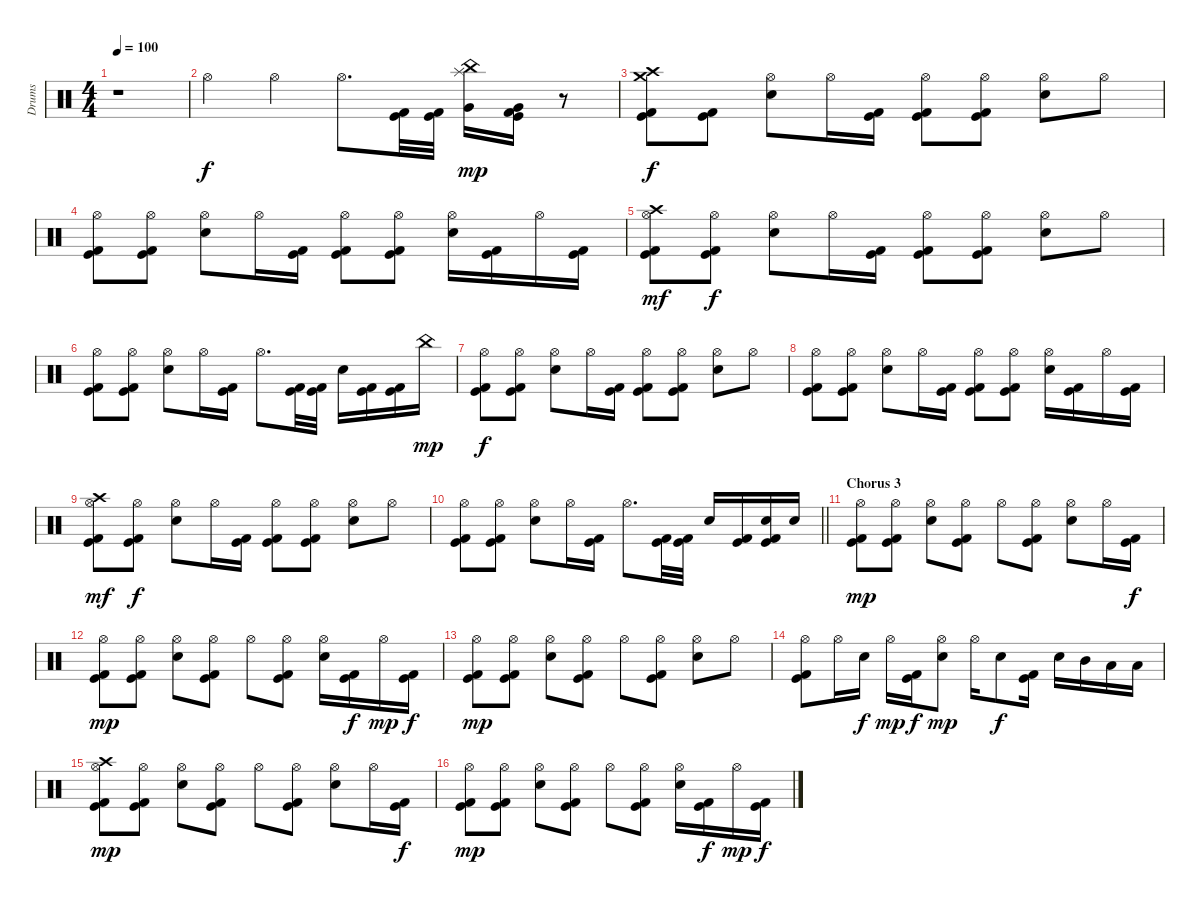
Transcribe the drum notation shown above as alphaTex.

\track ("Drums" "Drums") {instrument percussion}
\staff {score}
\articulation defaults
\ts (4 4)
\tempo 100
\clef neutral
\ks c
r.1{dy f} |
"Hi-Hat (open)".4 "Hi-Hat (open)".4 "Hi-Hat (open)".8{d} ("Kick (hit)" "Kick (hit) 2").32 ("Kick (hit)" "Kick (hit) 2").32 ("Splash (hit)" "China (hit)" "Very Low Tom (hit)").16{dy mp} ("Very Low Tom (hit)" "Kick (hit)" "Kick (hit) 2").16 r.8 |
("Crash medium (hit)" "Crash high (hit)" "Kick (hit)" "Kick (hit) 2").8{dy f} ("Kick (hit)" "Kick (hit) 2").8 ("Hi-Hat (open)" "Snare (hit) 2").8 "Hi-Hat (open)".16 ("Kick (hit)" "Kick (hit) 2").16 ("Hi-Hat (open)" "Kick (hit)" "Kick (hit) 2").8 ("Hi-Hat (open)" "Kick (hit)" "Kick (hit) 2").8 ("Hi-Hat (open)" "Snare (hit) 2").8 "Hi-Hat (open)".8 |
("Hi-Hat (open)" "Kick (hit)" "Kick (hit) 2").8 ("Hi-Hat (open)" "Kick (hit)" "Kick (hit) 2").8 ("Hi-Hat (open)" "Snare (hit) 2").8 "Hi-Hat (open)".16 ("Kick (hit)" "Kick (hit) 2").16 ("Hi-Hat (open)" "Kick (hit)" "Kick (hit) 2").8 ("Hi-Hat (open)" "Kick (hit)" "Kick (hit) 2").8 ("Hi-Hat (open)" "Snare (hit) 2").16 ("Kick (hit)" "Kick (hit) 2").16 "Hi-Hat (open)".16 ("Kick (hit)" "Kick (hit) 2").16 |
("Crash high (hit)" "Hi-Hat (open)" "Kick (hit)" "Kick (hit) 2").8{dy mf} ("Hi-Hat (open)" "Kick (hit)" "Kick (hit) 2").8{dy f} ("Hi-Hat (open)" "Snare (hit) 2").8 "Hi-Hat (open)".16 ("Kick (hit)" "Kick (hit) 2").16 ("Hi-Hat (open)" "Kick (hit)" "Kick (hit) 2").8 ("Hi-Hat (open)" "Kick (hit)" "Kick (hit) 2").8 ("Hi-Hat (open)" "Snare (hit) 2").8 "Hi-Hat (open)".8 |
("Hi-Hat (open)" "Kick (hit)" "Kick (hit) 2").8 ("Hi-Hat (open)" "Kick (hit)" "Kick (hit) 2").8 ("Hi-Hat (open)" "Snare (hit) 2").8 "Hi-Hat (open)".16 ("Kick (hit)" "Kick (hit) 2").16 "Hi-Hat (open)".8{d} ("Kick (hit)" "Kick (hit) 2").32 ("Kick (hit)" "Kick (hit) 2").32 "Snare (hit) 2".16 ("Kick (hit)" "Kick (hit) 2").16 ("Kick (hit)" "Kick (hit) 2").16 "China (hit)".16{dy mp} |
("Hi-Hat (open)" "Kick (hit)" "Kick (hit) 2").8{dy f} ("Hi-Hat (open)" "Kick (hit)" "Kick (hit) 2").8 ("Hi-Hat (open)" "Snare (hit) 2").8 "Hi-Hat (open)".16 ("Kick (hit)" "Kick (hit) 2").16 ("Hi-Hat (open)" "Kick (hit)" "Kick (hit) 2").8 ("Hi-Hat (open)" "Kick (hit)" "Kick (hit) 2").8 ("Hi-Hat (open)" "Snare (hit) 2").8 "Hi-Hat (open)".8 |
("Hi-Hat (open)" "Kick (hit)" "Kick (hit) 2").8 ("Hi-Hat (open)" "Kick (hit)" "Kick (hit) 2").8 ("Hi-Hat (open)" "Snare (hit) 2").8 "Hi-Hat (open)".16 ("Kick (hit)" "Kick (hit) 2").16 ("Hi-Hat (open)" "Kick (hit)" "Kick (hit) 2").8 ("Hi-Hat (open)" "Kick (hit)" "Kick (hit) 2").8 ("Hi-Hat (open)" "Snare (hit) 2").16 ("Kick (hit)" "Kick (hit) 2").16 "Hi-Hat (open)".16 ("Kick (hit)" "Kick (hit) 2").16 |
("Crash high (hit)" "Hi-Hat (open)" "Kick (hit)" "Kick (hit) 2").8{dy mf} ("Hi-Hat (open)" "Kick (hit)" "Kick (hit) 2").8{dy f} ("Hi-Hat (open)" "Snare (hit) 2").8 "Hi-Hat (open)".16 ("Kick (hit)" "Kick (hit) 2").16 ("Hi-Hat (open)" "Kick (hit)" "Kick (hit) 2").8 ("Hi-Hat (open)" "Kick (hit)" "Kick (hit) 2").8 ("Hi-Hat (open)" "Snare (hit) 2").8 "Hi-Hat (open)".8 |
\barLineRight lightlight
("Hi-Hat (open)" "Kick (hit)" "Kick (hit) 2").8 ("Hi-Hat (open)" "Kick (hit)" "Kick (hit) 2").8 ("Hi-Hat (open)" "Snare (hit) 2").8 "Hi-Hat (open)".16 ("Kick (hit)" "Kick (hit) 2").16 "Hi-Hat (open)".8{d} ("Kick (hit)" "Kick (hit) 2").32 ("Kick (hit)" "Kick (hit) 2").32 "Snare (hit) 2".16 ("Kick (hit)" "Kick (hit) 2").16 ("Snare (hit) 2" "Kick (hit)" "Kick (hit) 2").16 "Snare (hit) 2".16 |
\section ("" "Chorus 3")
("Hi-Hat (open)" "Kick (hit)" "Kick (hit) 2").8{dy mp} ("Hi-Hat (open)" "Kick (hit)" "Kick (hit) 2").8 ("Hi-Hat (open)" "Snare (hit) 2").8 ("Hi-Hat (open)" "Kick (hit)" "Kick (hit) 2").8 "Hi-Hat (open)".8 ("Hi-Hat (open)" "Kick (hit)" "Kick (hit) 2").8 ("Hi-Hat (open)" "Snare (hit) 2").8 "Hi-Hat (open)".16 ("Kick (hit)" "Kick (hit) 2").16{dy f} |
("Hi-Hat (open)" "Kick (hit)" "Kick (hit) 2").8{dy mp} ("Hi-Hat (open)" "Kick (hit)" "Kick (hit) 2").8 ("Hi-Hat (open)" "Snare (hit) 2").8 ("Hi-Hat (open)" "Kick (hit)" "Kick (hit) 2").8 "Hi-Hat (open)".8 ("Hi-Hat (open)" "Kick (hit)" "Kick (hit) 2").8 ("Hi-Hat (open)" "Snare (hit) 2").16 ("Kick (hit)" "Kick (hit) 2").16{dy f} "Hi-Hat (open)".16{dy mp} ("Kick (hit)" "Kick (hit) 2").16{dy f} |
("Hi-Hat (open)" "Kick (hit)" "Kick (hit) 2").8{dy mp} ("Hi-Hat (open)" "Kick (hit)" "Kick (hit) 2").8 ("Hi-Hat (open)" "Snare (hit) 2").8 ("Hi-Hat (open)" "Kick (hit)" "Kick (hit) 2").8 "Hi-Hat (open)".8 ("Hi-Hat (open)" "Kick (hit)" "Kick (hit) 2").8 ("Hi-Hat (open)" "Snare (hit) 2").8 "Hi-Hat (open)".8 |
("Hi-Hat (open)" "Kick (hit)" "Kick (hit) 2").8 "Hi-Hat (open)".16 "Snare (hit) 2".16{dy f} "Hi-Hat (open)".16{dy mp} ("Kick (hit)" "Kick (hit) 2").16{dy f} ("Hi-Hat (open)" "Snare (hit) 2").8{dy mp} "Hi-Hat (open)".16 "Snare (hit) 2".8{dy f} ("Kick (hit)" "Kick (hit) 2").16 "Snare (hit) 2".16 "Mid Tom (hit)".16 "Low Tom (hit)".16 "Low Tom (hit)".16 |
("Crash high (hit)" "Hi-Hat (open)" "Kick (hit)" "Kick (hit) 2").8{dy mp} ("Hi-Hat (open)" "Kick (hit)" "Kick (hit) 2").8 ("Hi-Hat (open)" "Snare (hit) 2").8 ("Hi-Hat (open)" "Kick (hit)" "Kick (hit) 2").8 "Hi-Hat (open)".8 ("Hi-Hat (open)" "Kick (hit)" "Kick (hit) 2").8 ("Hi-Hat (open)" "Snare (hit) 2").8 "Hi-Hat (open)".16 ("Kick (hit)" "Kick (hit) 2").16{dy f} |
("Hi-Hat (open)" "Kick (hit)" "Kick (hit) 2").8{dy mp} ("Hi-Hat (open)" "Kick (hit)" "Kick (hit) 2").8 ("Hi-Hat (open)" "Snare (hit) 2").8 ("Hi-Hat (open)" "Kick (hit)" "Kick (hit) 2").8 "Hi-Hat (open)".8 ("Hi-Hat (open)" "Kick (hit)" "Kick (hit) 2").8 ("Hi-Hat (open)" "Snare (hit) 2").16 ("Kick (hit)" "Kick (hit) 2").16{dy f} "Hi-Hat (open)".16{dy mp} ("Kick (hit)" "Kick (hit) 2").16{dy f}
